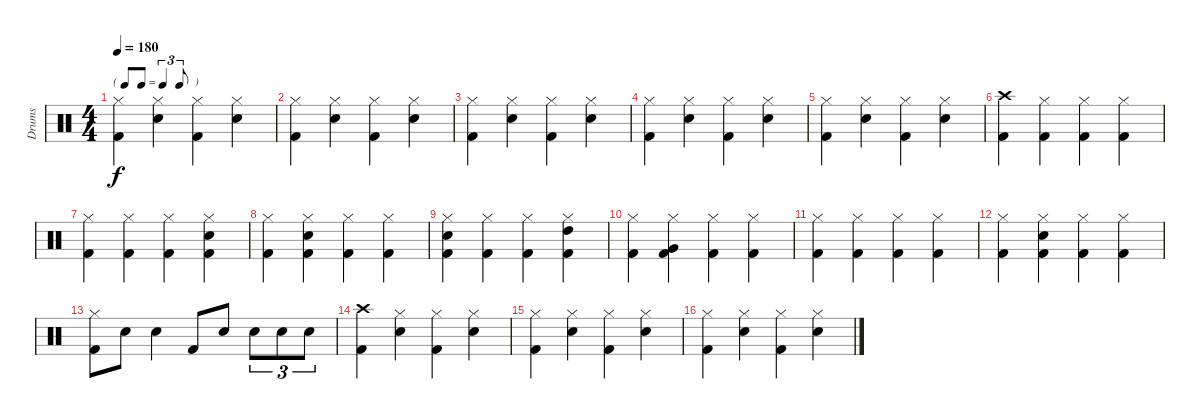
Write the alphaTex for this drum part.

\track ("Drums" "Drums") {instrument percussion}
\staff {score}
\articulation defaults
\ts (4 4)
\tf triplet8th
\tempo 180
\clef neutral
\ks c
("Hi-Hat (closed)" "Kick (hit) 2").4{dy f} ("Hi-Hat (closed)" "Snare (hit) 2").4 ("Hi-Hat (closed)" "Kick (hit) 2").4 ("Hi-Hat (closed)" "Snare (hit) 2").4 |
("Hi-Hat (closed)" "Kick (hit) 2").4 ("Hi-Hat (closed)" "Snare (hit) 2").4 ("Hi-Hat (closed)" "Kick (hit) 2").4 ("Hi-Hat (closed)" "Snare (hit) 2").4 |
("Hi-Hat (closed)" "Kick (hit) 2").4 ("Hi-Hat (closed)" "Snare (hit) 2").4 ("Hi-Hat (closed)" "Kick (hit) 2").4 ("Hi-Hat (closed)" "Snare (hit) 2").4 |
("Hi-Hat (closed)" "Kick (hit) 2").4 ("Hi-Hat (closed)" "Snare (hit) 2").4 ("Hi-Hat (closed)" "Kick (hit) 2").4 ("Hi-Hat (closed)" "Snare (hit) 2").4 |
("Hi-Hat (closed)" "Kick (hit) 2").4 ("Hi-Hat (closed)" "Snare (hit) 2").4 ("Hi-Hat (closed)" "Kick (hit) 2").4 ("Hi-Hat (closed)" "Snare (hit) 2").4 |
("Crash high (hit)" "Kick (hit) 2").4 ("Hi-Hat (closed)" "Kick (hit) 2").4 ("Hi-Hat (closed)" "Kick (hit) 2").4 ("Hi-Hat (closed)" "Kick (hit) 2").4 |
("Hi-Hat (closed)" "Kick (hit) 2").4 ("Hi-Hat (closed)" "Kick (hit) 2").4 ("Hi-Hat (closed)" "Kick (hit) 2").4 ("Hi-Hat (closed)" "Snare (hit) 2" "Kick (hit) 2").4 |
("Hi-Hat (closed)" "Kick (hit) 2").4 ("Hi-Hat (closed)" "Snare (hit) 2" "Kick (hit) 2").4 ("Hi-Hat (closed)" "Kick (hit) 2").4 ("Hi-Hat (closed)" "Kick (hit) 2").4 |
("Hi-Hat (closed)" "Snare (hit) 2" "Kick (hit) 2").4 ("Hi-Hat (closed)" "Kick (hit) 2").4 ("Hi-Hat (closed)" "Kick (hit) 2").4 ("Hi-Hat (closed)" "High Tom (hit)" "Kick (hit) 2").4 |
("Hi-Hat (closed)" "Kick (hit) 2").4 ("Hi-Hat (closed)" "Very Low Tom (hit)" "Kick (hit) 2").4 ("Hi-Hat (closed)" "Kick (hit) 2").4 ("Hi-Hat (closed)" "Kick (hit) 2").4 |
("Hi-Hat (closed)" "Kick (hit) 2").4 ("Hi-Hat (closed)" "Kick (hit) 2").4 ("Hi-Hat (closed)" "Kick (hit) 2").4 ("Hi-Hat (closed)" "Kick (hit) 2").4 |
("Hi-Hat (closed)" "Kick (hit) 2").4 ("Hi-Hat (closed)" "Snare (hit) 2" "Kick (hit) 2").4 ("Hi-Hat (closed)" "Kick (hit) 2").4 ("Hi-Hat (closed)" "Kick (hit) 2").4 |
("Hi-Hat (closed)" "Kick (hit) 2").8 "Snare (hit) 2".8 "Snare (hit) 2".4 "Kick (hit) 2".8 "Snare (hit) 2".8 "Snare (hit) 2".8{tu (3 2)} "Snare (hit) 2".8{tu (3 2)} "Snare (hit) 2".8{tu (3 2)} |
("Crash high (hit)" "Kick (hit) 2").4 ("Hi-Hat (closed)" "Snare (hit) 2").4 ("Hi-Hat (closed)" "Kick (hit) 2").4 ("Hi-Hat (closed)" "Snare (hit) 2").4 |
("Hi-Hat (closed)" "Kick (hit) 2").4 ("Hi-Hat (closed)" "Snare (hit) 2").4 ("Hi-Hat (closed)" "Kick (hit) 2").4 ("Hi-Hat (closed)" "Snare (hit) 2").4 |
("Hi-Hat (closed)" "Kick (hit) 2").4 ("Hi-Hat (closed)" "Snare (hit) 2").4 ("Hi-Hat (closed)" "Kick (hit) 2").4 ("Hi-Hat (closed)" "Snare (hit) 2").4
